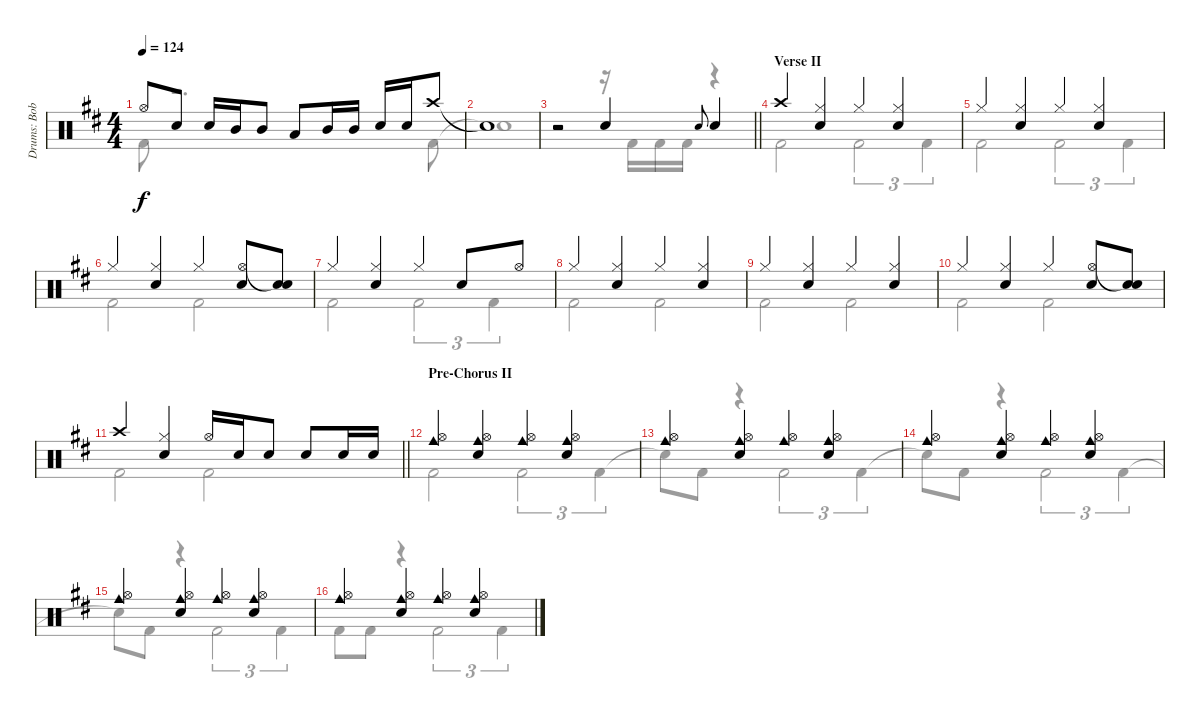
\track ("Drums: Bobby" "Drums: Bob") {instrument percussion}
\staff {score}
\articulation defaults
\voice
\ts (4 4)
\tempo 124
\clef neutral
\ks d "Hi-Hat (open)".8{dy f} "Snare (hit) 2".8 "Snare (hit) 2".16 "Mid Tom (hit)".16 "Mid Tom (hit)".8 "Low Tom (hit)".8 "Mid Tom (hit)".16 "Mid Tom (hit)".16 "Snare (hit) 2".16 "Snare (hit) 2".16 "Crash high (hit)".8
|
"Snare (hit)"{t}.1 |
\barLineRight lightlight
r.2 "Snare (hit) 2".4 "Electric Snare (hit)".8{gr onbeat} "Snare (hit) 2".4 |
\section ("" "Verse II")
"Crash high (hit)".4 ("Hi-Hat (closed)" "Snare (hit) 2").4 "Hi-Hat (closed)".4 ("Hi-Hat (closed)" "Snare (hit) 2").4 |
"Hi-Hat (closed)".4 ("Hi-Hat (closed)" "Snare (hit) 2").4 "Hi-Hat (closed)".4 ("Hi-Hat (closed)" "Snare (hit) 2").4 |
"Hi-Hat (closed)".4 ("Hi-Hat (closed)" "Snare (hit) 2").4 "Hi-Hat (closed)".4 ("Hi-Hat (open)" "Snare (hit) 2").8 ("Snare (hit)"{t} "Snare (hit) 2").8 |
"Hi-Hat (closed)".4 ("Hi-Hat (closed)" "Snare (hit) 2").4 "Hi-Hat (closed)".4 "Snare (hit) 2".8 "Hi-Hat (open)".8 |
"Hi-Hat (closed)".4 ("Hi-Hat (closed)" "Snare (hit) 2").4 "Hi-Hat (closed)".4 ("Hi-Hat (closed)" "Snare (hit) 2").4 |
"Hi-Hat (closed)".4 ("Hi-Hat (closed)" "Snare (hit) 2").4 "Hi-Hat (closed)".4 ("Hi-Hat (closed)" "Snare (hit) 2").4 |
"Hi-Hat (closed)".4 ("Hi-Hat (closed)" "Snare (hit) 2").4 "Hi-Hat (closed)".4 ("Hi-Hat (open)" "Snare (hit) 2").8 ("Snare (hit)"{t} "Snare (hit) 2").8 |
\barLineRight lightlight "Crash high (hit)".4
("Hi-Hat (closed)" "Snare (hit) 2").4 "Hi-Hat (open)".16 "Snare (hit) 2".16 "Snare (hit) 2".8 "Snare (hit) 2".8 "Snare (hit) 2".16 "Snare (hit) 2".16 |
\section ("" "Pre-Chorus II")
("Hi-Hat (open)" "Cowbell medium (hit)").4 ("Hi-Hat (open)" "Snare (hit) 2" "Cowbell medium (hit)").4 ("Hi-Hat (open)" "Cowbell medium (hit)").4 ("Hi-Hat (open)" "Snare (hit) 2" "Cowbell medium (hit)").4 |
("Hi-Hat (open)" "Cowbell medium (hit)").4 ("Hi-Hat (open)" "Snare (hit) 2" "Cowbell medium (hit)").4 ("Hi-Hat (open)" "Cowbell medium (hit)").4 ("Hi-Hat (open)" "Snare (hit) 2" "Cowbell medium (hit)").4 |
("Hi-Hat (open)" "Cowbell medium (hit)").4 ("Hi-Hat (open)" "Snare (hit) 2" "Cowbell medium (hit)").4 ("Hi-Hat (open)" "Cowbell medium (hit)").4 ("Hi-Hat (open)" "Snare (hit) 2" "Cowbell medium (hit)").4 |
("Hi-Hat (open)" "Cowbell medium (hit)").4 ("Hi-Hat (open)" "Snare (hit) 2" "Cowbell medium (hit)").4 ("Hi-Hat (open)" "Cowbell medium (hit)").4 ("Hi-Hat (open)" "Snare (hit) 2" "Cowbell medium (hit)").4 |
("Hi-Hat (open)" "Cowbell medium (hit)").4 ("Hi-Hat (open)" "Snare (hit) 2" "Cowbell medium (hit)").4 ("Hi-Hat (open)" "Cowbell medium (hit)").4 ("Hi-Hat (open)" "Snare (hit) 2" "Cowbell medium (hit)").4
\voice
\clef neutral
\ottava regular
\simile none
\ks d "Kick (hit) 2".8{dy f}
r.2{d} "Kick (hit) 2".8 |
"Snare (hit)"{t}.1 |
\barLineRight lightlight
r.2 r.16 "Kick (hit) 2".16 "Kick (hit) 2".16 "Kick (hit) 2".16 r.4 |
"Kick (hit) 2".2 "Kick (hit) 2".2{tu (3 2)} "Kick (hit) 2".4{tu (3 2)} |
"Kick (hit) 2".2 "Kick (hit) 2".2{tu (3 2)} "Kick (hit) 2".4{tu (3 2)} |
"Kick (hit) 2".2 "Kick (hit) 2".2 |
"Kick (hit) 2".2 "Kick (hit) 2".2{tu (3 2)} "Kick (hit) 2".4{tu (3 2)} |
"Kick (hit) 2".2 "Kick (hit) 2".2 |
"Kick (hit) 2".2 "Kick (hit) 2".2 |
"Kick (hit) 2".2 "Kick (hit) 2".2 |
\barLineRight lightlight "Kick (hit) 2".2 "Kick (hit) 2".2
|
"Kick (hit) 2".2 "Kick (hit) 2".2{tu (3 2)} "Kick (hit) 2".4{tu (3 2)} |
"Snare (hit)"{t}.8 "Kick (hit) 2".8 r.4 "Kick (hit) 2".2{tu (3 2)} "Kick (hit) 2".4{tu (3 2)} |
"Snare (hit)"{t}.8 "Kick (hit) 2".8 r.4 "Kick (hit) 2".2{tu (3 2)} "Kick (hit) 2".4{tu (3 2)} |
"Snare (hit)"{t}.8 "Kick (hit) 2".8 r.4 "Kick (hit) 2".2{tu (3 2)} "Kick (hit) 2".4{tu (3 2)} |
"Kick (hit) 2".8 "Kick (hit) 2".8 r.4 "Kick (hit) 2".2{tu (3 2)} "Kick (hit) 2".4{tu (3 2)}
